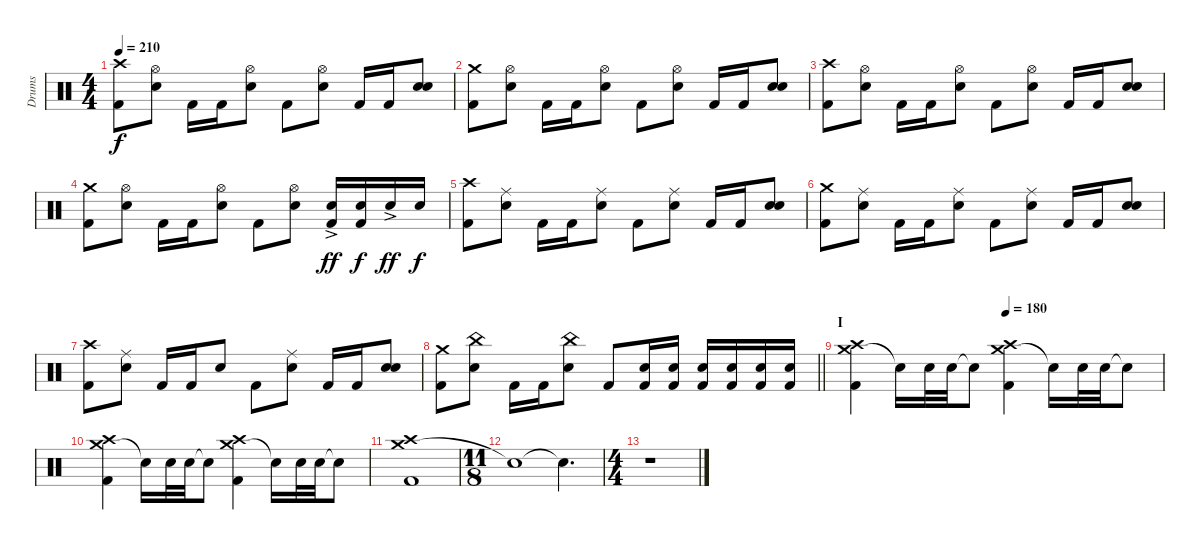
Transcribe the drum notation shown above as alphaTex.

\track ("Drums" "Drums") {instrument percussion}
\staff {score}
\articulation defaults
\ts (4 4)
\tempo 210
\clef neutral
\ks c
("Crash high (hit)" "Kick (hit) 2").8{dy f} ("Hi-Hat (open)" "Electric Snare (hit)").8 "Kick (hit) 2".16 "Kick (hit) 2".16 ("Hi-Hat (open)" "Electric Snare (hit)").8 "Kick (hit) 2".8 ("Hi-Hat (open)" "Electric Snare (hit)").8 "Kick (hit) 2".16 "Kick (hit) 2".16 ("Electric Snare (hit)" "Electric Snare (hit)").8 |
("Crash medium (hit)" "Kick (hit) 2").8 ("Hi-Hat (open)" "Electric Snare (hit)").8 "Kick (hit) 2".16 "Kick (hit) 2".16 ("Hi-Hat (open)" "Electric Snare (hit)").8 "Kick (hit) 2".8 ("Hi-Hat (open)" "Electric Snare (hit)").8 "Kick (hit) 2".16 "Kick (hit) 2".16 ("Electric Snare (hit)" "Electric Snare (hit)").8 |
("Crash high (hit)" "Kick (hit) 2").8 ("Hi-Hat (open)" "Electric Snare (hit)").8 "Kick (hit) 2".16 "Kick (hit) 2".16 ("Hi-Hat (open)" "Electric Snare (hit)").8 "Kick (hit) 2".8 ("Hi-Hat (open)" "Electric Snare (hit)").8 "Kick (hit) 2".16 "Kick (hit) 2".16 ("Electric Snare (hit)" "Electric Snare (hit)").8 |
("Crash medium (hit)" "Kick (hit) 2").8 ("Hi-Hat (open)" "Electric Snare (hit)").8 "Kick (hit) 2".16 "Kick (hit) 2".16 ("Hi-Hat (open)" "Electric Snare (hit)").8 "Kick (hit) 2".8 ("Hi-Hat (open)" "Electric Snare (hit)").8 ("Electric Snare (hit)"{ac} "Kick (hit) 2").16{dy ff} ("Electric Snare (hit)" "Kick (hit) 2").16{dy f} "Electric Snare (hit)"{ac}.16{dy ff} "Electric Snare (hit)".16{dy f} |
("Crash high (hit)" "Kick (hit) 2").8 ("Ride (middle)" "Electric Snare (hit)").8 "Kick (hit) 2".16 "Kick (hit) 2".16 ("Ride (middle)" "Electric Snare (hit)").8 "Kick (hit) 2".8 ("Ride (middle)" "Electric Snare (hit)").8 "Kick (hit) 2".16 "Kick (hit) 2".16 ("Electric Snare (hit)" "Electric Snare (hit)").8 |
("Crash medium (hit)" "Kick (hit) 2").8 ("Ride (middle)" "Electric Snare (hit)").8 "Kick (hit) 2".16 "Kick (hit) 2".16 ("Ride (middle)" "Electric Snare (hit)").8 "Kick (hit) 2".8 ("Ride (middle)" "Electric Snare (hit)").8 "Kick (hit) 2".16 "Kick (hit) 2".16 ("Electric Snare (hit)" "Electric Snare (hit)").8 |
("Crash high (hit)" "Kick (hit) 2").8 ("Ride (middle)" "Electric Snare (hit)").8 "Kick (hit) 2".16 "Kick (hit) 2".16 "Electric Snare (hit)".8 "Kick (hit) 2".8 ("Ride (middle)" "Electric Snare (hit)").8 "Kick (hit) 2".16 "Kick (hit) 2".16 ("Electric Snare (hit)" "Electric Snare (hit)").8 |
\barLineRight lightlight
("Crash medium (hit)" "Kick (hit) 2").8 ("China (hit)" "Electric Snare (hit)").8 "Kick (hit) 2".16 "Kick (hit) 2".16 ("China (hit)" "Electric Snare (hit)").8 "Kick (hit) 2".8 ("Electric Snare (hit)" "Kick (hit) 2").16 ("Electric Snare (hit)" "Kick (hit) 2").16 ("Electric Snare (hit)" "Kick (hit) 2").16 ("Electric Snare (hit)" "Kick (hit) 2").16 ("Electric Snare (hit)" "Kick (hit) 2").16 ("Electric Snare (hit)" "Kick (hit) 2").16 |
\section ("" "I")
\tempo (180 0.5)
("Crash medium (hit)" "Crash high (hit)" "Kick (hit) 2").4 "Snare (hit)"{t}.16 "Electric Snare (hit)".32 "Electric Snare (hit)".32 "Snare (hit)"{t}.8 ("Crash medium (hit)" "Crash high (hit)" "Kick (hit) 2").4 "Snare (hit)"{t}.16 "Electric Snare (hit)".32 "Electric Snare (hit)".32 "Snare (hit)"{t}.8 |
("Crash medium (hit)" "Crash high (hit)" "Kick (hit) 2").4 "Snare (hit)"{t}.16 "Electric Snare (hit)".32 "Electric Snare (hit)".32 "Snare (hit)"{t}.8 ("Crash medium (hit)" "Crash high (hit)" "Kick (hit) 2").4 "Snare (hit)"{t}.16 "Electric Snare (hit)".32 "Electric Snare (hit)".32 "Snare (hit)"{t}.8 |
("Crash medium (hit)" "Crash high (hit)" "Kick (hit) 2").1 |
\ts (11 8)
"Snare (hit)"{t}.1 "Snare (hit)"{t}.4{d} |
\ts (4 4)
r.1
